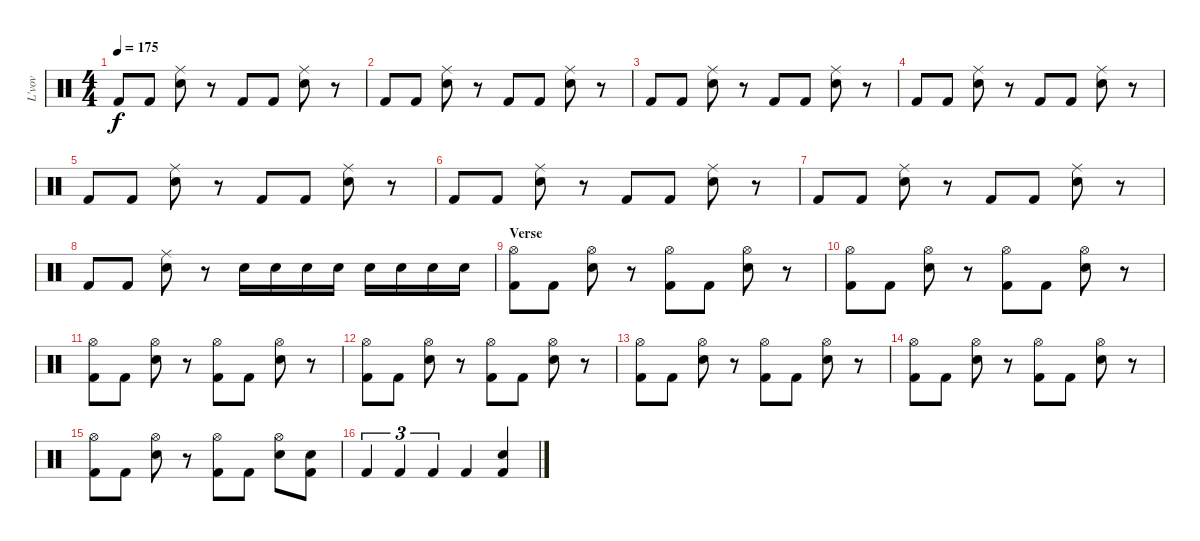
\track ("L'vov" "L'vov") {instrument percussion}
\staff {score}
\articulation defaults
\ts (4 4)
\tempo 175
\clef neutral
\ks c "Kick (hit) 2".8{dy f} "Kick (hit) 2".8
("Snare (hit) 2" "Ride (middle)").8 r.8 "Kick (hit) 2".8 "Kick (hit) 2".8 ("Snare (hit) 2" "Ride (middle)").8 r.8 |
"Kick (hit) 2".8 "Kick (hit) 2".8 ("Snare (hit) 2" "Ride (middle)").8 r.8 "Kick (hit) 2".8 "Kick (hit) 2".8 ("Snare (hit) 2" "Ride (middle)").8 r.8 |
"Kick (hit) 2".8 "Kick (hit) 2".8 ("Snare (hit) 2" "Ride (middle)").8 r.8 "Kick (hit) 2".8 "Kick (hit) 2".8 ("Snare (hit) 2" "Ride (middle)").8 r.8 |
"Kick (hit) 2".8 "Kick (hit) 2".8 ("Snare (hit) 2" "Ride (middle)").8 r.8 "Kick (hit) 2".8 "Kick (hit) 2".8 ("Snare (hit) 2" "Ride (middle)").8 r.8 |
"Kick (hit) 2".8 "Kick (hit) 2".8 ("Snare (hit) 2" "Ride (middle)").8 r.8 "Kick (hit) 2".8 "Kick (hit) 2".8 ("Snare (hit) 2" "Ride (middle)").8 r.8 |
"Kick (hit) 2".8 "Kick (hit) 2".8 ("Snare (hit) 2" "Ride (middle)").8 r.8 "Kick (hit) 2".8 "Kick (hit) 2".8 ("Snare (hit) 2" "Ride (middle)").8 r.8 |
"Kick (hit) 2".8 "Kick (hit) 2".8 ("Snare (hit) 2" "Ride (middle)").8 r.8 "Kick (hit) 2".8 "Kick (hit) 2".8 ("Snare (hit) 2" "Ride (middle)").8 r.8 |
"Kick (hit) 2".8 "Kick (hit) 2".8 ("Snare (hit) 2" "Ride (middle)").8 r.8 "Snare (hit) 2".16 "Snare (hit) 2".16 "Snare (hit) 2".16 "Snare (hit) 2".16 "Snare (hit) 2".16 "Snare (hit) 2".16 "Snare (hit) 2".16 "Snare (hit) 2".16 |
\section ("" "Verse")
("Kick (hit) 2" "Hi-Hat (open)").8 "Kick (hit) 2".8 ("Snare (hit) 2" "Hi-Hat (open)").8 r.8 ("Kick (hit) 2" "Hi-Hat (open)").8 "Kick (hit) 2".8 ("Snare (hit) 2" "Hi-Hat (open)").8 r.8 |
("Kick (hit) 2" "Hi-Hat (open)").8 "Kick (hit) 2".8 ("Snare (hit) 2" "Hi-Hat (open)").8 r.8 ("Kick (hit) 2" "Hi-Hat (open)").8 "Kick (hit) 2".8 ("Snare (hit) 2" "Hi-Hat (open)").8 r.8 |
("Kick (hit) 2" "Hi-Hat (open)").8 "Kick (hit) 2".8 ("Snare (hit) 2" "Hi-Hat (open)").8 r.8 ("Kick (hit) 2" "Hi-Hat (open)").8 "Kick (hit) 2".8 ("Snare (hit) 2" "Hi-Hat (open)").8 r.8 |
("Kick (hit) 2" "Hi-Hat (open)").8 "Kick (hit) 2".8 ("Snare (hit) 2" "Hi-Hat (open)").8 r.8 ("Kick (hit) 2" "Hi-Hat (open)").8 "Kick (hit) 2".8 ("Snare (hit) 2" "Hi-Hat (open)").8 r.8 |
("Kick (hit) 2" "Hi-Hat (open)").8 "Kick (hit) 2".8 ("Snare (hit) 2" "Hi-Hat (open)").8 r.8 ("Kick (hit) 2" "Hi-Hat (open)").8 "Kick (hit) 2".8 ("Snare (hit) 2" "Hi-Hat (open)").8 r.8 |
("Kick (hit) 2" "Hi-Hat (open)").8 "Kick (hit) 2".8 ("Snare (hit) 2" "Hi-Hat (open)").8 r.8 ("Kick (hit) 2" "Hi-Hat (open)").8 "Kick (hit) 2".8 ("Snare (hit) 2" "Hi-Hat (open)").8 r.8 |
("Kick (hit) 2" "Hi-Hat (open)").8 "Kick (hit) 2".8 ("Snare (hit) 2" "Hi-Hat (open)").8 r.8 ("Kick (hit) 2" "Hi-Hat (open)").8 "Kick (hit) 2".8 ("Snare (hit) 2" "Hi-Hat (open)").8 ("Snare (hit) 2" "Kick (hit) 2").8 |
"Kick (hit) 2".4{tu (3 2)} "Kick (hit) 2".4{tu (3 2)} "Kick (hit) 2".4{tu (3 2)} "Kick (hit) 2".4 ("Snare (hit) 2" "Kick (hit) 2").4
